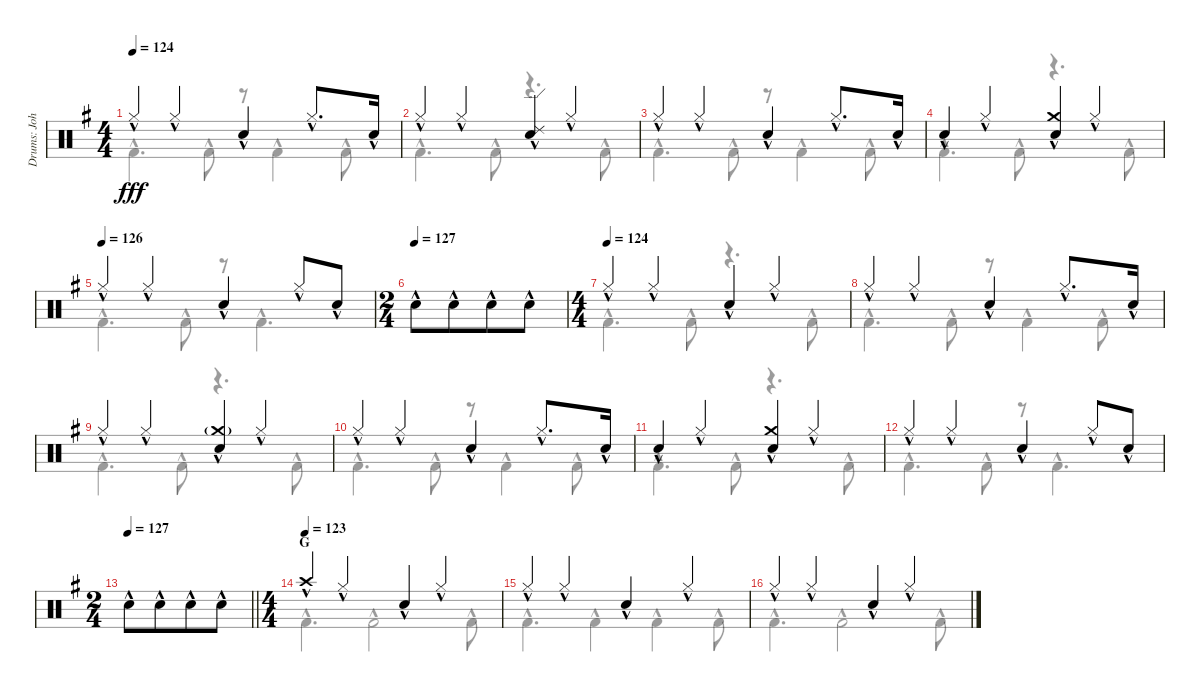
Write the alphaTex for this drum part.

\track ("Drums: John" "Drums: Joh") {instrument percussion}
\staff {score}
\articulation defaults
\voice
\ts (4 4)
\tempo 124
\clef neutral
\ks g "Hi-Hat (closed)"{hac}.4{dy fff} "Hi-Hat (closed)"{hac}.4 "Electric Snare (hit)"{hac}.4 "Hi-Hat (closed)"{hac}.8{d} "Electric Snare (hit)"{hac}.16
|
"Hi-Hat (closed)"{hac}.4 "Hi-Hat (closed)"{hac}.4{beam merge} ("Ride (edge) 2" "Electric Snare (hit)"{hac}).4 "Hi-Hat (closed)"{hac}.4 |
"Hi-Hat (closed)"{hac}.4 "Hi-Hat (closed)"{hac}.4 "Electric Snare (hit)"{hac}.4 "Hi-Hat (closed)"{hac}.8{d} "Electric Snare (hit)"{hac}.16 |
"Electric Snare (hit)"{hac}.4 "Hi-Hat (closed)"{hac}.4 ("Crash medium (hit)" "Electric Snare (hit)"{hac}).4 "Hi-Hat (closed)"{hac}.4 |
\tempo (126)
"Hi-Hat (closed)"{hac}.4 "Hi-Hat (closed)"{hac}.4 "Electric Snare (hit)"{hac}.4 "Hi-Hat (closed)"{hac}.8 "Electric Snare (hit)"{hac}.8 |
\ts (2 4)
\tempo (127)
"Electric Snare (hit)"{hac}.8 "Electric Snare (hit)"{hac}.8{beam merge} "Electric Snare (hit)"{hac}.8 "Electric Snare (hit)"{hac}.8 |
\ts (4 4)
\tempo (124)
"Hi-Hat (closed)"{hac}.4 "Hi-Hat (closed)"{hac}.4{beam merge} "Electric Snare (hit)"{hac}.4 "Hi-Hat (closed)"{hac}.4 |
"Hi-Hat (closed)"{hac}.4 "Hi-Hat (closed)"{hac}.4 "Electric Snare (hit)"{hac}.4 "Hi-Hat (closed)"{hac}.8{d} "Electric Snare (hit)"{hac}.16 |
"Hi-Hat (closed)"{hac}.4 "Hi-Hat (closed)"{hac}.4{beam merge} ("Crash medium (hit)"{g} "Electric Snare (hit)"{hac}).4 "Hi-Hat (closed)"{hac}.4 |
"Hi-Hat (closed)"{hac}.4 "Hi-Hat (closed)"{hac}.4 "Electric Snare (hit)"{hac}.4 "Hi-Hat (closed)"{hac}.8{d} "Electric Snare (hit)"{hac}.16 |
"Electric Snare (hit)"{hac}.4 "Hi-Hat (closed)"{hac}.4 ("Crash medium (hit)" "Electric Snare (hit)"{hac}).4 "Hi-Hat (closed)"{hac}.4 |
"Hi-Hat (closed)"{hac}.4 "Hi-Hat (closed)"{hac}.4 "Electric Snare (hit)"{hac}.4 "Hi-Hat (closed)"{hac}.8 "Electric Snare (hit)"{hac}.8 |
\ts (2 4)
\tempo 127
\barLineRight lightlight "Electric Snare (hit)"{hac}.8 "Electric Snare (hit)"{hac}.8{beam merge} "Electric Snare (hit)"{hac}.8 "Electric Snare (hit)"{hac}.8
|
\ts (4 4)
\section ("" "G")
\tempo (123)
"Crash high (hit)"{hac}.4 "Hi-Hat (closed)"{hac}.4{beam merge} "Electric Snare (hit)"{hac}.4 "Hi-Hat (closed)"{hac}.4 |
"Hi-Hat (closed)"{hac}.4 "Hi-Hat (closed)"{hac}.4 "Electric Snare (hit)"{hac}.4 "Hi-Hat (closed)"{hac}.4 |
"Hi-Hat (closed)"{hac}.4 "Hi-Hat (closed)"{hac}.4{beam merge} "Electric Snare (hit)"{hac}.4 "Hi-Hat (closed)"{hac}.4
\voice
\clef neutral
\ottava regular
\simile none
\ks g "Kick (hit) 2"{hac}.4{d dy fff} "Kick (hit) 2"{hac}.8
r.8 "Kick (hit) 2"{hac}.4 "Kick (hit) 2"{hac}.8 |
"Kick (hit) 2"{hac}.4{d} "Kick (hit) 2"{hac}.8 r.4{d} "Kick (hit) 2"{hac}.8 |
"Kick (hit) 2"{hac}.4{d} "Kick (hit) 2"{hac}.8 r.8 "Kick (hit) 2"{hac}.4 "Kick (hit) 2"{hac}.8 |
"Kick (hit) 2"{hac}.4{d} "Kick (hit) 2"{hac}.8 r.4{d} "Kick (hit) 2"{hac}.8 |
"Kick (hit) 2"{hac}.4{d} "Kick (hit) 2"{hac}.8 r.8 "Kick (hit) 2"{hac}.4{d} |
|
"Kick (hit) 2"{hac}.4{d} "Kick (hit) 2"{hac}.8 r.4{d} "Kick (hit) 2"{hac}.8 |
"Kick (hit) 2"{hac}.4{d} "Kick (hit) 2"{hac}.8 r.8 "Kick (hit) 2"{hac}.4 "Kick (hit) 2"{hac}.8 |
"Kick (hit) 2"{hac}.4{d} "Kick (hit) 2"{hac}.8 r.4{d} "Kick (hit) 2"{hac}.8 |
"Kick (hit) 2"{hac}.4{d} "Kick (hit) 2"{hac}.8 r.8 "Kick (hit) 2"{hac}.4 "Kick (hit) 2"{hac}.8 |
"Kick (hit) 2"{hac}.4{d} "Kick (hit) 2"{hac}.8 r.4{d} "Kick (hit) 2"{hac}.8 |
"Kick (hit) 2"{hac}.4{d} "Kick (hit) 2"{hac}.8 r.8 "Kick (hit) 2"{hac}.4{d} |
\barLineRight lightlight
|
"Kick (hit) 2"{hac}.4{d} "Kick (hit) 2"{hac}.2 "Kick (hit) 2"{hac}.8 |
"Kick (hit) 2"{hac}.4{d} "Kick (hit) 2"{hac}.4 "Kick (hit) 2"{hac}.4 "Kick (hit) 2"{hac}.8 |
"Kick (hit) 2"{hac}.4{d} "Kick (hit) 2"{hac}.2 "Kick (hit) 2"{hac}.8
